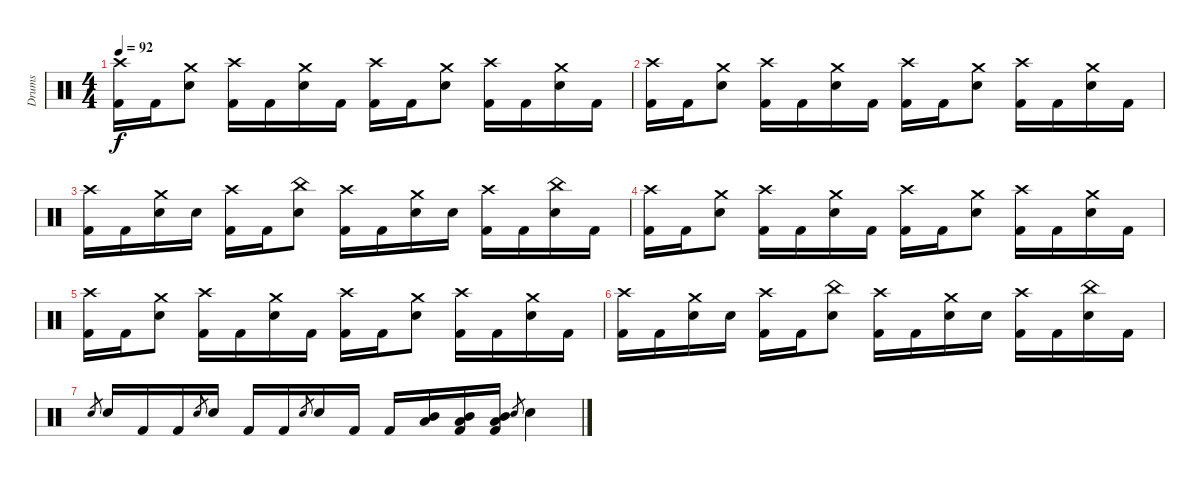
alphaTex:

\track ("Drums" "Drums") {instrument percussion}
\staff {score}
\articulation defaults
\ts (4 4)
\tempo 92
\clef neutral
\ks c
("Crash high (hit)" "Kick (hit) 2").16{dy f} "Kick (hit) 2".16 ("Crash medium (hit)" "Snare (hit) 2").8 ("Crash high (hit)" "Kick (hit) 2").16 "Kick (hit) 2".16 ("Crash medium (hit)" "Snare (hit) 2").16 "Kick (hit) 2".16 ("Crash high (hit)" "Kick (hit) 2").16 "Kick (hit) 2".16 ("Crash medium (hit)" "Snare (hit) 2").8 ("Crash high (hit)" "Kick (hit) 2").16 "Kick (hit) 2".16 ("Crash medium (hit)" "Snare (hit) 2").16 "Kick (hit) 2".16 |
("Crash high (hit)" "Kick (hit) 2").16 "Kick (hit) 2".16 ("Crash medium (hit)" "Snare (hit) 2").8 ("Crash high (hit)" "Kick (hit) 2").16 "Kick (hit) 2".16 ("Crash medium (hit)" "Snare (hit) 2").16 "Kick (hit) 2".16 ("Crash high (hit)" "Kick (hit) 2").16 "Kick (hit) 2".16 ("Crash medium (hit)" "Snare (hit) 2").8 ("Crash high (hit)" "Kick (hit) 2").16 "Kick (hit) 2".16 ("Crash medium (hit)" "Snare (hit) 2").16 "Kick (hit) 2".16 |
("Crash high (hit)" "Kick (hit) 2").16 "Kick (hit) 2".16 ("Crash medium (hit)" "Snare (hit) 2").16 "Snare (hit) 2".16 ("Crash high (hit)" "Kick (hit) 2").16 "Kick (hit) 2".16 ("China (hit)" "Snare (hit) 2").8 ("Crash high (hit)" "Kick (hit) 2").16 "Kick (hit) 2".16 ("Crash medium (hit)" "Snare (hit) 2").16 "Snare (hit) 2".16 ("Crash high (hit)" "Kick (hit) 2").16 "Kick (hit) 2".16 ("China (hit)" "Snare (hit) 2").16 "Kick (hit) 2".16 |
("Crash high (hit)" "Kick (hit) 2").16 "Kick (hit) 2".16 ("Crash medium (hit)" "Snare (hit) 2").8 ("Crash high (hit)" "Kick (hit) 2").16 "Kick (hit) 2".16 ("Crash medium (hit)" "Snare (hit) 2").16 "Kick (hit) 2".16 ("Crash high (hit)" "Kick (hit) 2").16 "Kick (hit) 2".16 ("Crash medium (hit)" "Snare (hit) 2").8 ("Crash high (hit)" "Kick (hit) 2").16 "Kick (hit) 2".16 ("Crash medium (hit)" "Snare (hit) 2").16 "Kick (hit) 2".16 |
("Crash high (hit)" "Kick (hit) 2").16 "Kick (hit) 2".16 ("Crash medium (hit)" "Snare (hit) 2").8 ("Crash high (hit)" "Kick (hit) 2").16 "Kick (hit) 2".16 ("Crash medium (hit)" "Snare (hit) 2").16 "Kick (hit) 2".16 ("Crash high (hit)" "Kick (hit) 2").16 "Kick (hit) 2".16 ("Crash medium (hit)" "Snare (hit) 2").8 ("Crash high (hit)" "Kick (hit) 2").16 "Kick (hit) 2".16 ("Crash medium (hit)" "Snare (hit) 2").16 "Kick (hit) 2".16 |
("Crash high (hit)" "Kick (hit) 2").16 "Kick (hit) 2".16 ("Crash medium (hit)" "Snare (hit) 2").16 "Snare (hit) 2".16 ("Crash high (hit)" "Kick (hit) 2").16 "Kick (hit) 2".16 ("China (hit)" "Snare (hit) 2").8 ("Crash high (hit)" "Kick (hit) 2").16 "Kick (hit) 2".16 ("Crash medium (hit)" "Snare (hit) 2").16 "Snare (hit) 2".16 ("Crash high (hit)" "Kick (hit) 2").16 "Kick (hit) 2".16 ("China (hit)" "Snare (hit) 2").16 "Kick (hit) 2".16 |
"Snare (hit) 2".8{gr} "Snare (hit) 2".16 "Kick (hit) 2".16 "Kick (hit) 2".16 "Snare (hit) 2".8{gr} "Snare (hit) 2".16 "Kick (hit) 2".16 "Kick (hit) 2".16 "Snare (hit) 2".8{gr} "Snare (hit) 2".16 "Kick (hit) 2".16 "Kick (hit) 2".16 ("Mid Tom (hit)" "Low Tom (hit)").16 ("Mid Tom (hit)" "Low Tom (hit)" "Kick (hit) 2").16 ("Mid Tom (hit)" "Low Tom (hit)" "Kick (hit) 2").16 "Snare (hit) 2".8{gr} "Snare (hit) 2".4
